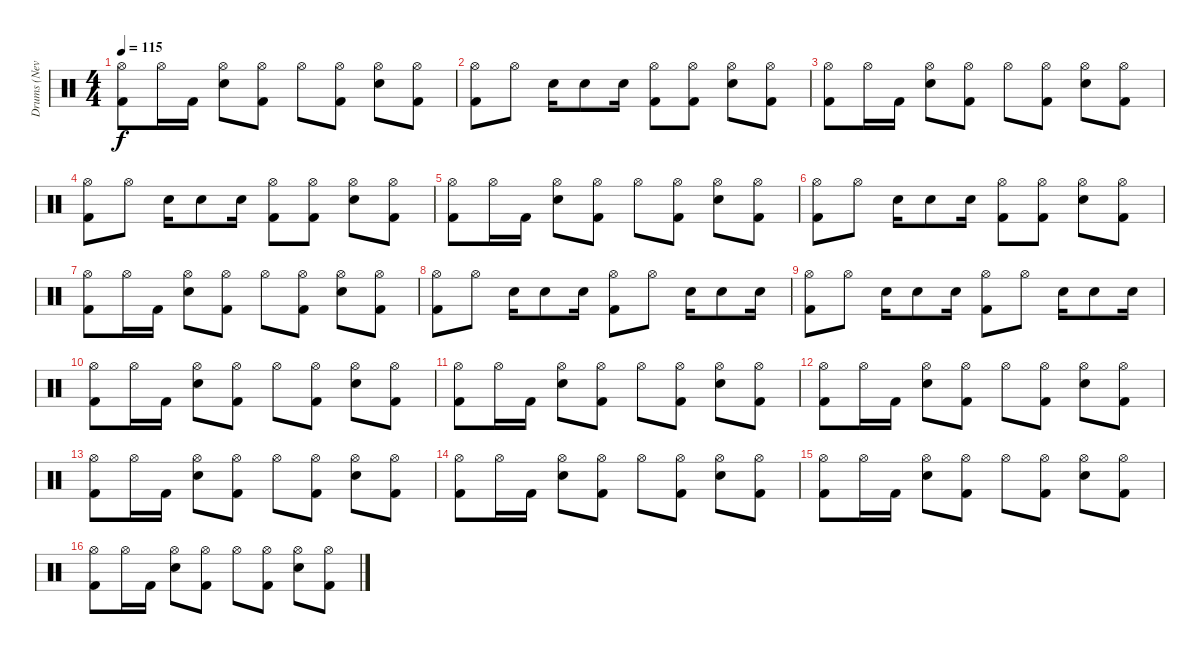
\track ("Drums (Nevi)" "Drums (Nev") {instrument percussion}
\staff {score}
\articulation defaults
\ts (4 4)
\tempo 115
\clef neutral
\ks c
("Kick (hit) 2" "Hi-Hat (open)").8{dy f} "Hi-Hat (open)".16 "Kick (hit) 2".16 ("Snare (hit) 2" "Hi-Hat (open)").8 ("Kick (hit) 2" "Hi-Hat (open)").8 "Hi-Hat (open)".8 ("Kick (hit) 2" "Hi-Hat (open)").8 ("Snare (hit) 2" "Hi-Hat (open)").8 ("Kick (hit) 2" "Hi-Hat (open)").8 |
("Kick (hit) 2" "Hi-Hat (open)").8 "Hi-Hat (open)".8 "Snare (hit) 2".16 "Snare (hit) 2".8 "Snare (hit) 2".16 ("Kick (hit) 2" "Hi-Hat (open)").8 ("Kick (hit) 2" "Hi-Hat (open)").8 ("Snare (hit) 2" "Hi-Hat (open)").8 ("Kick (hit) 2" "Hi-Hat (open)").8 |
("Kick (hit) 2" "Hi-Hat (open)").8 "Hi-Hat (open)".16 "Kick (hit) 2".16 ("Snare (hit) 2" "Hi-Hat (open)").8 ("Kick (hit) 2" "Hi-Hat (open)").8 "Hi-Hat (open)".8 ("Kick (hit) 2" "Hi-Hat (open)").8 ("Snare (hit) 2" "Hi-Hat (open)").8 ("Kick (hit) 2" "Hi-Hat (open)").8 |
("Kick (hit) 2" "Hi-Hat (open)").8 "Hi-Hat (open)".8 "Snare (hit) 2".16 "Snare (hit) 2".8 "Snare (hit) 2".16 ("Kick (hit) 2" "Hi-Hat (open)").8 ("Kick (hit) 2" "Hi-Hat (open)").8 ("Snare (hit) 2" "Hi-Hat (open)").8 ("Kick (hit) 2" "Hi-Hat (open)").8 |
("Kick (hit) 2" "Hi-Hat (open)").8 "Hi-Hat (open)".16 "Kick (hit) 2".16 ("Snare (hit) 2" "Hi-Hat (open)").8 ("Kick (hit) 2" "Hi-Hat (open)").8 "Hi-Hat (open)".8 ("Kick (hit) 2" "Hi-Hat (open)").8 ("Snare (hit) 2" "Hi-Hat (open)").8 ("Kick (hit) 2" "Hi-Hat (open)").8 |
("Kick (hit) 2" "Hi-Hat (open)").8 "Hi-Hat (open)".8 "Snare (hit) 2".16 "Snare (hit) 2".8 "Snare (hit) 2".16 ("Kick (hit) 2" "Hi-Hat (open)").8 ("Kick (hit) 2" "Hi-Hat (open)").8 ("Snare (hit) 2" "Hi-Hat (open)").8 ("Kick (hit) 2" "Hi-Hat (open)").8 |
("Kick (hit) 2" "Hi-Hat (open)").8 "Hi-Hat (open)".16 "Kick (hit) 2".16 ("Snare (hit) 2" "Hi-Hat (open)").8 ("Kick (hit) 2" "Hi-Hat (open)").8 "Hi-Hat (open)".8 ("Kick (hit) 2" "Hi-Hat (open)").8 ("Snare (hit) 2" "Hi-Hat (open)").8 ("Kick (hit) 2" "Hi-Hat (open)").8 |
("Kick (hit) 2" "Hi-Hat (open)").8 "Hi-Hat (open)".8 "Snare (hit) 2".16 "Snare (hit) 2".8 "Snare (hit) 2".16 ("Kick (hit) 2" "Hi-Hat (open)").8 "Hi-Hat (open)".8 "Snare (hit) 2".16 "Snare (hit) 2".8 "Snare (hit) 2".16 |
("Kick (hit) 2" "Hi-Hat (open)").8 "Hi-Hat (open)".8 "Snare (hit) 2".16 "Snare (hit) 2".8 "Snare (hit) 2".16 ("Kick (hit) 2" "Hi-Hat (open)").8 "Hi-Hat (open)".8 "Snare (hit) 2".16 "Snare (hit) 2".8 "Snare (hit) 2".16 |
("Kick (hit) 2" "Hi-Hat (open)").8 "Hi-Hat (open)".16 "Kick (hit) 2".16 ("Snare (hit) 2" "Hi-Hat (open)").8 ("Kick (hit) 2" "Hi-Hat (open)").8 "Hi-Hat (open)".8 ("Kick (hit) 2" "Hi-Hat (open)").8 ("Snare (hit) 2" "Hi-Hat (open)").8 ("Kick (hit) 2" "Hi-Hat (open)").8 |
("Kick (hit) 2" "Hi-Hat (open)").8 "Hi-Hat (open)".16 "Kick (hit) 2".16 ("Snare (hit) 2" "Hi-Hat (open)").8 ("Kick (hit) 2" "Hi-Hat (open)").8 "Hi-Hat (open)".8 ("Kick (hit) 2" "Hi-Hat (open)").8 ("Snare (hit) 2" "Hi-Hat (open)").8 ("Kick (hit) 2" "Hi-Hat (open)").8 |
("Kick (hit) 2" "Hi-Hat (open)").8 "Hi-Hat (open)".16 "Kick (hit) 2".16 ("Snare (hit) 2" "Hi-Hat (open)").8 ("Kick (hit) 2" "Hi-Hat (open)").8 "Hi-Hat (open)".8 ("Kick (hit) 2" "Hi-Hat (open)").8 ("Snare (hit) 2" "Hi-Hat (open)").8 ("Kick (hit) 2" "Hi-Hat (open)").8 |
("Kick (hit) 2" "Hi-Hat (open)").8 "Hi-Hat (open)".16 "Kick (hit) 2".16 ("Snare (hit) 2" "Hi-Hat (open)").8 ("Kick (hit) 2" "Hi-Hat (open)").8 "Hi-Hat (open)".8 ("Kick (hit) 2" "Hi-Hat (open)").8 ("Snare (hit) 2" "Hi-Hat (open)").8 ("Kick (hit) 2" "Hi-Hat (open)").8 |
("Kick (hit) 2" "Hi-Hat (open)").8 "Hi-Hat (open)".16 "Kick (hit) 2".16 ("Snare (hit) 2" "Hi-Hat (open)").8 ("Kick (hit) 2" "Hi-Hat (open)").8 "Hi-Hat (open)".8 ("Kick (hit) 2" "Hi-Hat (open)").8 ("Snare (hit) 2" "Hi-Hat (open)").8 ("Kick (hit) 2" "Hi-Hat (open)").8 |
("Kick (hit) 2" "Hi-Hat (open)").8 "Hi-Hat (open)".16 "Kick (hit) 2".16 ("Snare (hit) 2" "Hi-Hat (open)").8 ("Kick (hit) 2" "Hi-Hat (open)").8 "Hi-Hat (open)".8 ("Kick (hit) 2" "Hi-Hat (open)").8 ("Snare (hit) 2" "Hi-Hat (open)").8 ("Kick (hit) 2" "Hi-Hat (open)").8 |
("Kick (hit) 2" "Hi-Hat (open)").8 "Hi-Hat (open)".16 "Kick (hit) 2".16 ("Snare (hit) 2" "Hi-Hat (open)").8 ("Kick (hit) 2" "Hi-Hat (open)").8 "Hi-Hat (open)".8 ("Kick (hit) 2" "Hi-Hat (open)").8 ("Snare (hit) 2" "Hi-Hat (open)").8 ("Kick (hit) 2" "Hi-Hat (open)").8
